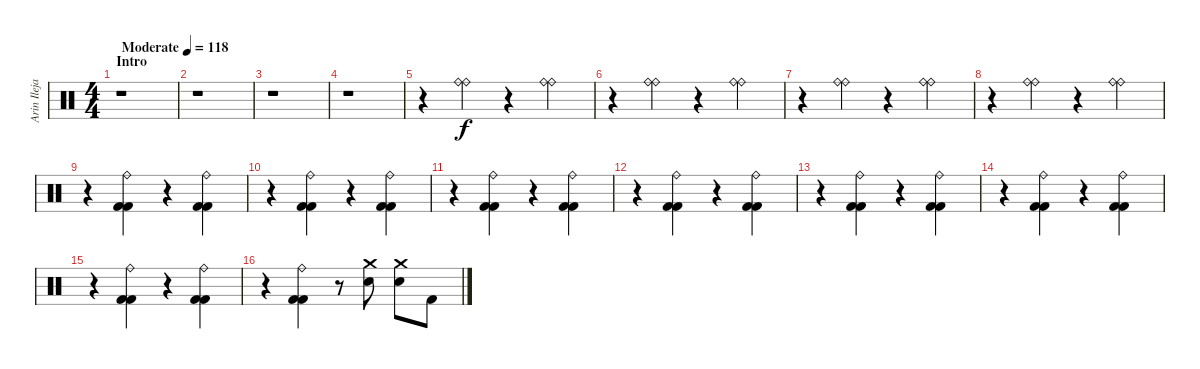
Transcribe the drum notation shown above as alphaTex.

\track ("Arin Ilejay" "Arin Ileja") {instrument percussion bank 164}
\staff {score}
\articulation defaults
\ts (4 4)
\section ("" "Intro")
\tempo (118 "Moderate")
\clef neutral
\ks c
r.1{dy f} |
r.1 |
r.1 |
r.1 |
r.4 ("Ride (bell)" "Ride (bell)").4 r.4 ("Ride (bell)" "Ride (bell)").4 |
r.4 ("Ride (bell)" "Ride (bell)").4 r.4 ("Ride (bell)" "Ride (bell)").4 |
r.4 ("Ride (bell)" "Ride (bell)").4 r.4 ("Ride (bell)" "Ride (bell)").4 |
r.4 ("Ride (bell)" "Ride (bell)").4 r.4 ("Ride (bell)" "Ride (bell)").4 |
r.4 ("Ride (bell)" "Kick (hit) 2" "Kick (hit) 2").4 r.4 ("Ride (bell)" "Kick (hit) 2" "Kick (hit) 2").4 |
r.4 ("Ride (bell)" "Kick (hit) 2" "Kick (hit) 2").4 r.4 ("Ride (bell)" "Kick (hit) 2" "Kick (hit) 2").4 |
r.4 ("Ride (bell)" "Kick (hit) 2" "Kick (hit) 2").4 r.4 ("Ride (bell)" "Kick (hit) 2" "Kick (hit) 2").4 |
r.4 ("Ride (bell)" "Kick (hit) 2" "Kick (hit) 2").4 r.4 ("Ride (bell)" "Kick (hit) 2" "Kick (hit) 2").4 |
r.4 ("Ride (bell)" "Kick (hit) 2" "Kick (hit) 2").4 r.4 ("Ride (bell)" "Kick (hit) 2" "Kick (hit) 2").4 |
r.4 ("Ride (bell)" "Kick (hit) 2" "Kick (hit) 2").4 r.4 ("Ride (bell)" "Kick (hit) 2" "Kick (hit) 2").4 |
r.4 ("Ride (bell)" "Kick (hit) 2" "Kick (hit) 2").4 r.4 ("Ride (bell)" "Kick (hit) 2" "Kick (hit) 2").4 |
r.4 ("Ride (bell)" "Kick (hit) 2" "Kick (hit) 2").4 r.8 ("Crash medium (hit)" "Electric Snare (hit)").8 ("Crash medium (hit)" "Electric Snare (hit)").8 "Kick (hit) 2".8
